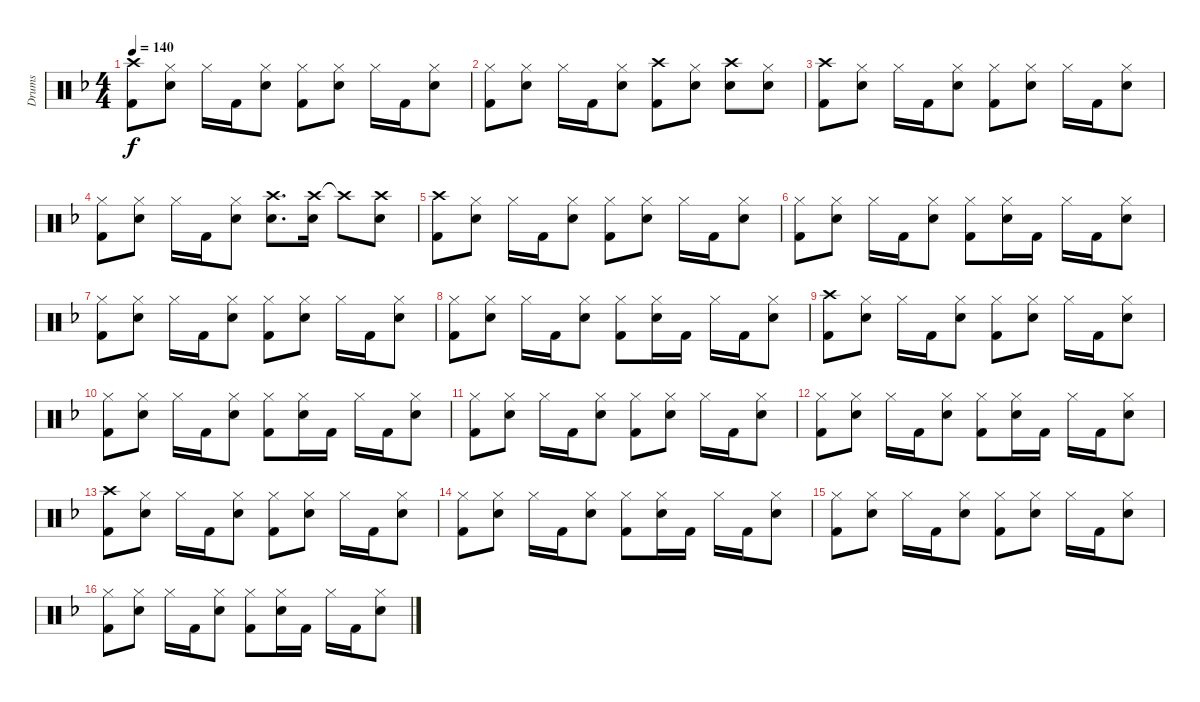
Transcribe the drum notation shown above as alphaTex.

\track ("Drums" "Drums") {instrument percussion}
\staff {score}
\articulation defaults
\ts (4 4)
\tempo 140
\clef neutral
\ks dminor
("Crash high (hit)" "Kick (hit) 2").8{dy f} ("Hi-Hat (closed)" "Snare (hit) 2").8 "Hi-Hat (closed)".16 "Kick (hit) 2".16 ("Hi-Hat (closed)" "Snare (hit) 2").8 ("Hi-Hat (closed)" "Kick (hit) 2").8 ("Hi-Hat (closed)" "Snare (hit) 2").8 "Hi-Hat (closed)".16 "Kick (hit) 2".16 ("Hi-Hat (closed)" "Snare (hit) 2").8 |
("Hi-Hat (closed)" "Kick (hit) 2").8 ("Hi-Hat (closed)" "Snare (hit) 2").8 "Hi-Hat (closed)".16 "Kick (hit) 2".16 ("Hi-Hat (closed)" "Snare (hit) 2").8 ("Crash high (hit)" "Kick (hit) 2").8 ("Hi-Hat (closed)" "Snare (hit) 2").8 ("Crash high (hit)" "Snare (hit) 2").8 ("Hi-Hat (closed)" "Snare (hit) 2").8 |
("Crash high (hit)" "Kick (hit) 2").8 ("Hi-Hat (closed)" "Snare (hit) 2").8 "Hi-Hat (closed)".16 "Kick (hit) 2".16 ("Hi-Hat (closed)" "Snare (hit) 2").8 ("Hi-Hat (closed)" "Kick (hit) 2").8 ("Hi-Hat (closed)" "Snare (hit) 2").8 "Hi-Hat (closed)".16 "Kick (hit) 2".16 ("Hi-Hat (closed)" "Snare (hit) 2").8 |
("Hi-Hat (closed)" "Kick (hit) 2").8 ("Hi-Hat (closed)" "Snare (hit) 2").8 "Hi-Hat (closed)".16 "Kick (hit) 2".16 ("Hi-Hat (closed)" "Snare (hit) 2").8 ("Crash high (hit)" "Snare (hit) 2").8{d} ("Crash high (hit)" "Snare (hit) 2").16 "Crash high (hit)"{t}.8 ("Crash high (hit)" "Snare (hit) 2").8 |
("Crash high (hit)" "Kick (hit) 2").8 ("Hi-Hat (closed)" "Snare (hit) 2").8 "Hi-Hat (closed)".16 "Kick (hit) 2".16 ("Hi-Hat (closed)" "Snare (hit) 2").8 ("Hi-Hat (closed)" "Kick (hit) 2").8 ("Hi-Hat (closed)" "Snare (hit) 2").8 "Hi-Hat (closed)".16 "Kick (hit) 2".16 ("Hi-Hat (closed)" "Snare (hit) 2").8 |
("Hi-Hat (closed)" "Kick (hit) 2").8 ("Hi-Hat (closed)" "Snare (hit) 2").8 "Hi-Hat (closed)".16 "Kick (hit) 2".16 ("Hi-Hat (closed)" "Snare (hit) 2").8 ("Hi-Hat (closed)" "Kick (hit) 2").8 ("Hi-Hat (closed)" "Snare (hit) 2").16 "Kick (hit) 2".16 "Hi-Hat (closed)".16 "Kick (hit) 2".16 ("Hi-Hat (closed)" "Snare (hit) 2").8 |
("Hi-Hat (closed)" "Kick (hit) 2").8 ("Hi-Hat (closed)" "Snare (hit) 2").8 "Hi-Hat (closed)".16 "Kick (hit) 2".16 ("Hi-Hat (closed)" "Snare (hit) 2").8 ("Hi-Hat (closed)" "Kick (hit) 2").8 ("Hi-Hat (closed)" "Snare (hit) 2").8 "Hi-Hat (closed)".16 "Kick (hit) 2".16 ("Hi-Hat (closed)" "Snare (hit) 2").8 |
("Hi-Hat (closed)" "Kick (hit) 2").8 ("Hi-Hat (closed)" "Snare (hit) 2").8 "Hi-Hat (closed)".16 "Kick (hit) 2".16 ("Hi-Hat (closed)" "Snare (hit) 2").8 ("Hi-Hat (closed)" "Kick (hit) 2").8 ("Hi-Hat (closed)" "Snare (hit) 2").16 "Kick (hit) 2".16 "Hi-Hat (closed)".16 "Kick (hit) 2".16 ("Hi-Hat (closed)" "Snare (hit) 2").8 |
("Crash high (hit)" "Kick (hit) 2").8 ("Hi-Hat (closed)" "Snare (hit) 2").8 "Hi-Hat (closed)".16 "Kick (hit) 2".16 ("Hi-Hat (closed)" "Snare (hit) 2").8 ("Hi-Hat (closed)" "Kick (hit) 2").8 ("Hi-Hat (closed)" "Snare (hit) 2").8 "Hi-Hat (closed)".16 "Kick (hit) 2".16 ("Hi-Hat (closed)" "Snare (hit) 2").8 |
("Hi-Hat (closed)" "Kick (hit) 2").8 ("Hi-Hat (closed)" "Snare (hit) 2").8 "Hi-Hat (closed)".16 "Kick (hit) 2".16 ("Hi-Hat (closed)" "Snare (hit) 2").8 ("Hi-Hat (closed)" "Kick (hit) 2").8 ("Hi-Hat (closed)" "Snare (hit) 2").16 "Kick (hit) 2".16 "Hi-Hat (closed)".16 "Kick (hit) 2".16 ("Hi-Hat (closed)" "Snare (hit) 2").8 |
("Hi-Hat (closed)" "Kick (hit) 2").8 ("Hi-Hat (closed)" "Snare (hit) 2").8 "Hi-Hat (closed)".16 "Kick (hit) 2".16 ("Hi-Hat (closed)" "Snare (hit) 2").8 ("Hi-Hat (closed)" "Kick (hit) 2").8 ("Hi-Hat (closed)" "Snare (hit) 2").8 "Hi-Hat (closed)".16 "Kick (hit) 2".16 ("Hi-Hat (closed)" "Snare (hit) 2").8 |
("Hi-Hat (closed)" "Kick (hit) 2").8 ("Hi-Hat (closed)" "Snare (hit) 2").8 "Hi-Hat (closed)".16 "Kick (hit) 2".16 ("Hi-Hat (closed)" "Snare (hit) 2").8 ("Hi-Hat (closed)" "Kick (hit) 2").8 ("Hi-Hat (closed)" "Snare (hit) 2").16 "Kick (hit) 2".16 "Hi-Hat (closed)".16 "Kick (hit) 2".16 ("Hi-Hat (closed)" "Snare (hit) 2").8 |
("Crash high (hit)" "Kick (hit) 2").8 ("Hi-Hat (closed)" "Snare (hit) 2").8 "Hi-Hat (closed)".16 "Kick (hit) 2".16 ("Hi-Hat (closed)" "Snare (hit) 2").8 ("Hi-Hat (closed)" "Kick (hit) 2").8 ("Hi-Hat (closed)" "Snare (hit) 2").8 "Hi-Hat (closed)".16 "Kick (hit) 2".16 ("Hi-Hat (closed)" "Snare (hit) 2").8 |
("Hi-Hat (closed)" "Kick (hit) 2").8 ("Hi-Hat (closed)" "Snare (hit) 2").8 "Hi-Hat (closed)".16 "Kick (hit) 2".16 ("Hi-Hat (closed)" "Snare (hit) 2").8 ("Hi-Hat (closed)" "Kick (hit) 2").8 ("Hi-Hat (closed)" "Snare (hit) 2").16 "Kick (hit) 2".16 "Hi-Hat (closed)".16 "Kick (hit) 2".16 ("Hi-Hat (closed)" "Snare (hit) 2").8 |
("Hi-Hat (closed)" "Kick (hit) 2").8 ("Hi-Hat (closed)" "Snare (hit) 2").8 "Hi-Hat (closed)".16 "Kick (hit) 2".16 ("Hi-Hat (closed)" "Snare (hit) 2").8 ("Hi-Hat (closed)" "Kick (hit) 2").8 ("Hi-Hat (closed)" "Snare (hit) 2").8 "Hi-Hat (closed)".16 "Kick (hit) 2".16 ("Hi-Hat (closed)" "Snare (hit) 2").8 |
("Hi-Hat (closed)" "Kick (hit) 2").8 ("Hi-Hat (closed)" "Snare (hit) 2").8 "Hi-Hat (closed)".16 "Kick (hit) 2".16 ("Hi-Hat (closed)" "Snare (hit) 2").8 ("Hi-Hat (closed)" "Kick (hit) 2").8 ("Hi-Hat (closed)" "Snare (hit) 2").16 "Kick (hit) 2".16 "Hi-Hat (closed)".16 "Kick (hit) 2".16 ("Hi-Hat (closed)" "Snare (hit) 2").8
